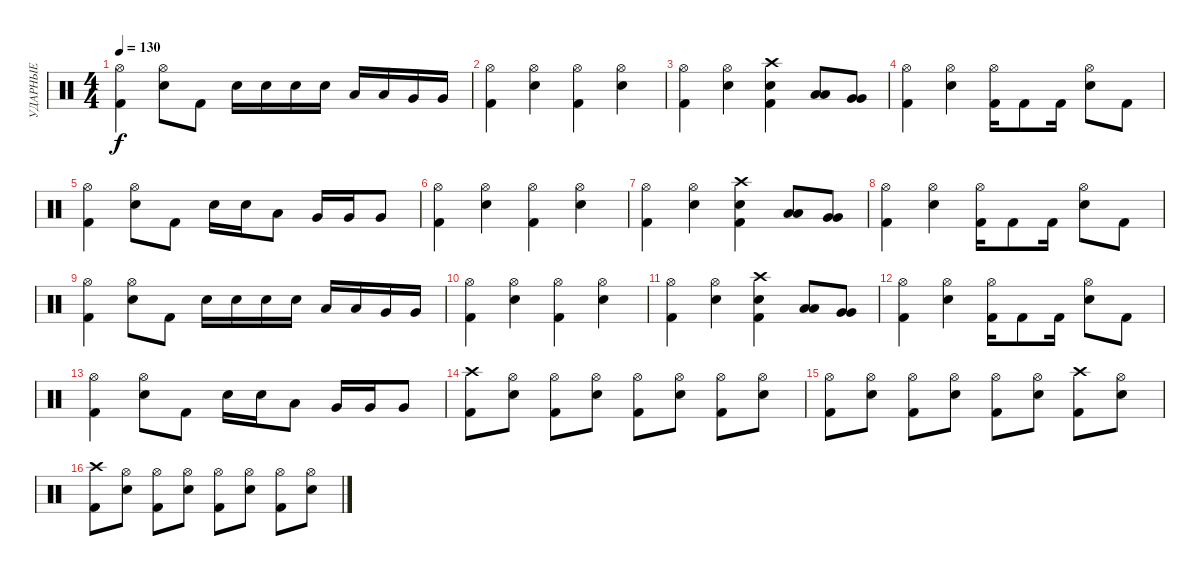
\track ("УДАРНЫЕ" "УДАРНЫЕ") {instrument percussion}
\staff {score}
\articulation defaults
\ts (4 4)
\tempo 130
\clef neutral
\ks c
("Hi-Hat (open)" "Kick (hit) 2").4{dy f} ("Hi-Hat (open)" "Snare (hit) 2").8 "Kick (hit) 2".8 "Snare (hit) 2".16 "Snare (hit) 2".16 "Snare (hit) 2".16 "Snare (hit) 2".16 "Low Tom (hit)".16 "Low Tom (hit)".16 "Very Low Tom (hit)".16 "Very Low Tom (hit)".16 |
("Kick (hit) 2" "Hi-Hat (open)").4 ("Snare (hit) 2" "Hi-Hat (open)").4 ("Kick (hit) 2" "Hi-Hat (open)").4 ("Snare (hit) 2" "Hi-Hat (open)").4 |
("Kick (hit) 2" "Hi-Hat (open)").4 ("Snare (hit) 2" "Hi-Hat (open)").4 ("Snare (hit) 2" "Kick (hit) 2" "Crash high (hit)").4 ("Low Tom (hit)" "Low Tom (hit)").8 ("Very Low Tom (hit)" "Very Low Tom (hit)").8 |
("Hi-Hat (open)" "Kick (hit) 2").4 ("Hi-Hat (open)" "Snare (hit) 2").4 ("Hi-Hat (open)" "Kick (hit) 2").16 "Kick (hit) 2".8 "Kick (hit) 2".16 ("Hi-Hat (open)" "Snare (hit) 2").8 "Kick (hit) 2".8 |
("Hi-Hat (open)" "Kick (hit) 2").4 ("Hi-Hat (open)" "Snare (hit) 2").8 "Kick (hit) 2".8 "Snare (hit) 2".16 "Snare (hit) 2".16 "Low Tom (hit)".8 "Very Low Tom (hit)".16 "Very Low Tom (hit)".16 "Very Low Tom (hit)".8 |
("Kick (hit) 2" "Hi-Hat (open)").4 ("Snare (hit) 2" "Hi-Hat (open)").4 ("Kick (hit) 2" "Hi-Hat (open)").4 ("Snare (hit) 2" "Hi-Hat (open)").4 |
("Kick (hit) 2" "Hi-Hat (open)").4 ("Snare (hit) 2" "Hi-Hat (open)").4 ("Snare (hit) 2" "Kick (hit) 2" "Crash high (hit)").4 ("Low Tom (hit)" "Low Tom (hit)").8 ("Very Low Tom (hit)" "Very Low Tom (hit)").8 |
("Hi-Hat (open)" "Kick (hit) 2").4 ("Hi-Hat (open)" "Snare (hit) 2").4 ("Hi-Hat (open)" "Kick (hit) 2").16 "Kick (hit) 2".8 "Kick (hit) 2".16 ("Hi-Hat (open)" "Snare (hit) 2").8 "Kick (hit) 2".8 |
("Hi-Hat (open)" "Kick (hit) 2").4 ("Hi-Hat (open)" "Snare (hit) 2").8 "Kick (hit) 2".8 "Snare (hit) 2".16 "Snare (hit) 2".16 "Snare (hit) 2".16 "Snare (hit) 2".16 "Low Tom (hit)".16 "Low Tom (hit)".16 "Very Low Tom (hit)".16 "Very Low Tom (hit)".16 |
("Kick (hit) 2" "Hi-Hat (open)").4 ("Snare (hit) 2" "Hi-Hat (open)").4 ("Kick (hit) 2" "Hi-Hat (open)").4 ("Snare (hit) 2" "Hi-Hat (open)").4 |
("Kick (hit) 2" "Hi-Hat (open)").4 ("Snare (hit) 2" "Hi-Hat (open)").4 ("Snare (hit) 2" "Kick (hit) 2" "Crash high (hit)").4 ("Low Tom (hit)" "Low Tom (hit)").8 ("Very Low Tom (hit)" "Very Low Tom (hit)").8 |
("Hi-Hat (open)" "Kick (hit) 2").4 ("Hi-Hat (open)" "Snare (hit) 2").4 ("Hi-Hat (open)" "Kick (hit) 2").16 "Kick (hit) 2".8 "Kick (hit) 2".16 ("Hi-Hat (open)" "Snare (hit) 2").8 "Kick (hit) 2".8 |
("Hi-Hat (open)" "Kick (hit) 2").4 ("Hi-Hat (open)" "Snare (hit) 2").8 "Kick (hit) 2".8 "Snare (hit) 2".16 "Snare (hit) 2".16 "Low Tom (hit)".8 "Very Low Tom (hit)".16 "Very Low Tom (hit)".16 "Very Low Tom (hit)".8 |
("Crash high (hit)" "Kick (hit) 2").8 ("Hi-Hat (open)" "Snare (hit) 2").8 ("Hi-Hat (open)" "Kick (hit) 2").8 ("Hi-Hat (open)" "Snare (hit) 2").8 ("Hi-Hat (open)" "Kick (hit) 2").8 ("Hi-Hat (open)" "Snare (hit) 2").8 ("Hi-Hat (open)" "Kick (hit) 2").8 ("Hi-Hat (open)" "Snare (hit) 2").8 |
("Hi-Hat (open)" "Kick (hit) 2").8 ("Hi-Hat (open)" "Snare (hit) 2").8 ("Hi-Hat (open)" "Kick (hit) 2").8 ("Hi-Hat (open)" "Snare (hit) 2").8 ("Hi-Hat (open)" "Kick (hit) 2").8 ("Hi-Hat (open)" "Snare (hit) 2").8 ("Crash high (hit)" "Kick (hit) 2").8 ("Hi-Hat (open)" "Snare (hit) 2").8 |
("Crash high (hit)" "Kick (hit) 2").8 ("Hi-Hat (open)" "Snare (hit) 2").8 ("Hi-Hat (open)" "Kick (hit) 2").8 ("Hi-Hat (open)" "Snare (hit) 2").8 ("Hi-Hat (open)" "Kick (hit) 2").8 ("Hi-Hat (open)" "Snare (hit) 2").8 ("Hi-Hat (open)" "Kick (hit) 2").8 ("Hi-Hat (open)" "Snare (hit) 2").8
